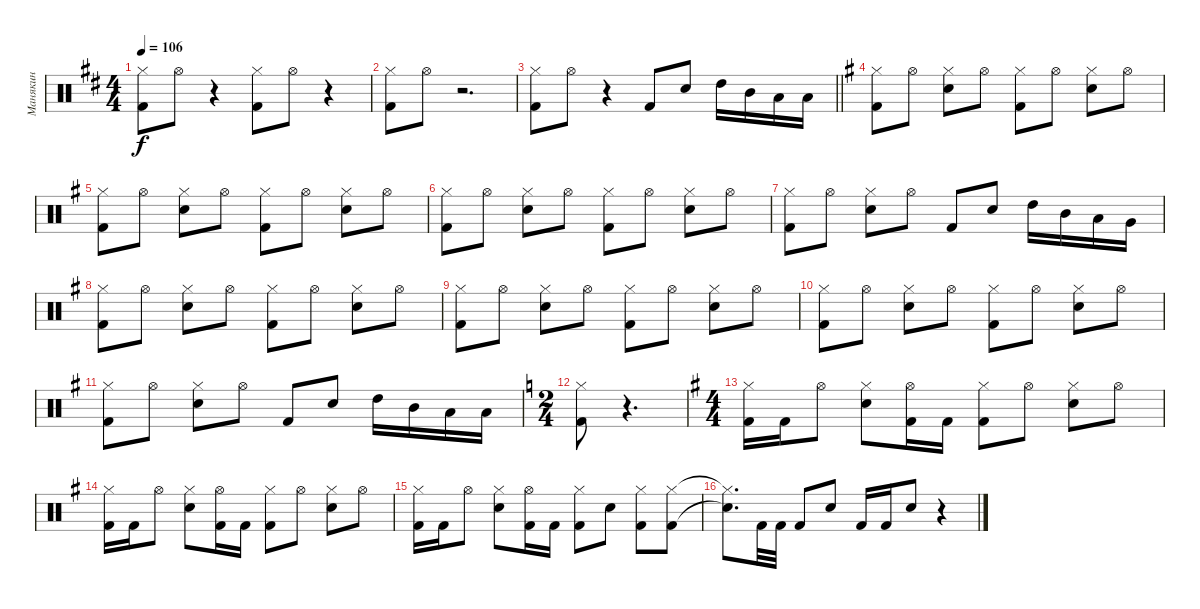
\track ("Манякин" "Манякин") {instrument percussion}
\staff {score}
\articulation defaults
\ts (4 4)
\tempo 106
\clef neutral
\ks d
("Hi-Hat (closed)" "Kick (hit) 2").8{dy f} "Hi-Hat (open)".8 r.4 ("Hi-Hat (closed)" "Kick (hit) 2").8 "Hi-Hat (open)".8 r.4 |
("Hi-Hat (closed)" "Kick (hit) 2").8 "Hi-Hat (open)".8 r.2{d} |
\barLineRight lightlight
("Hi-Hat (closed)" "Kick (hit) 2").8 "Hi-Hat (open)".8 r.4 "Kick (hit) 2".8 "Electric Snare (hit)".8 "High Tom (hit)".16 "Mid Tom (hit)".16 "Low Tom (hit)".16 "Low Tom (hit)".16 |
\ks g
("Hi-Hat (closed)" "Kick (hit) 2").8 "Hi-Hat (open)".8 ("Hi-Hat (closed)" "Electric Snare (hit)").8 "Hi-Hat (open)".8 ("Hi-Hat (closed)" "Kick (hit) 2").8 "Hi-Hat (open)".8 ("Hi-Hat (closed)" "Electric Snare (hit)").8 "Hi-Hat (open)".8 |
("Hi-Hat (closed)" "Kick (hit) 2").8 "Hi-Hat (open)".8 ("Hi-Hat (closed)" "Electric Snare (hit)").8 "Hi-Hat (open)".8 ("Hi-Hat (closed)" "Kick (hit) 2").8 "Hi-Hat (open)".8 ("Hi-Hat (closed)" "Electric Snare (hit)").8 "Hi-Hat (open)".8 |
("Hi-Hat (closed)" "Kick (hit) 2").8 "Hi-Hat (open)".8 ("Hi-Hat (closed)" "Electric Snare (hit)").8 "Hi-Hat (open)".8 ("Hi-Hat (closed)" "Kick (hit) 2").8 "Hi-Hat (open)".8 ("Hi-Hat (closed)" "Electric Snare (hit)").8 "Hi-Hat (open)".8 |
("Hi-Hat (closed)" "Kick (hit) 2").8 "Hi-Hat (open)".8 ("Hi-Hat (closed)" "Electric Snare (hit)").8 "Hi-Hat (open)".8 "Kick (hit) 2".8 "Electric Snare (hit)".8 "High Tom (hit)".16 "Mid Tom (hit)".16 "Low Tom (hit)".16 "Very Low Tom (hit)".16 |
("Hi-Hat (closed)" "Kick (hit) 2").8 "Hi-Hat (open)".8 ("Hi-Hat (closed)" "Electric Snare (hit)").8 "Hi-Hat (open)".8 ("Hi-Hat (closed)" "Kick (hit) 2").8 "Hi-Hat (open)".8 ("Hi-Hat (closed)" "Electric Snare (hit)").8 "Hi-Hat (open)".8 |
("Hi-Hat (closed)" "Kick (hit) 2").8 "Hi-Hat (open)".8 ("Hi-Hat (closed)" "Electric Snare (hit)").8 "Hi-Hat (open)".8 ("Hi-Hat (closed)" "Kick (hit) 2").8 "Hi-Hat (open)".8 ("Hi-Hat (closed)" "Electric Snare (hit)").8 "Hi-Hat (open)".8 |
("Hi-Hat (closed)" "Kick (hit) 2").8 "Hi-Hat (open)".8 ("Hi-Hat (closed)" "Electric Snare (hit)").8 "Hi-Hat (open)".8 ("Hi-Hat (closed)" "Kick (hit) 2").8 "Hi-Hat (open)".8 ("Hi-Hat (closed)" "Electric Snare (hit)").8 "Hi-Hat (open)".8 |
("Hi-Hat (closed)" "Kick (hit) 2").8 "Hi-Hat (open)".8 ("Hi-Hat (closed)" "Electric Snare (hit)").8 "Hi-Hat (open)".8 "Kick (hit) 2".8 "Electric Snare (hit)".8 "High Tom (hit)".16 "Mid Tom (hit)".16 "Low Tom (hit)".16 "Low Tom (hit)".16 |
\ts (2 4)
\ks c
("Hi-Hat (closed)" "Kick (hit) 2").8 r.4{d} |
\ts (4 4)
\ks g
("Hi-Hat (closed)" "Kick (hit) 2").16 "Kick (hit) 2".16 "Hi-Hat (open)".8 ("Hi-Hat (closed)" "Electric Snare (hit)").8 ("Kick (hit) 2" "Hi-Hat (open)").16 "Kick (hit) 2".16 ("Hi-Hat (closed)" "Kick (hit) 2").8 "Hi-Hat (open)".8 ("Hi-Hat (closed)" "Electric Snare (hit)").8 "Hi-Hat (open)".8 |
("Hi-Hat (closed)" "Kick (hit) 2").16 "Kick (hit) 2".16 "Hi-Hat (open)".8 ("Hi-Hat (closed)" "Electric Snare (hit)").8 ("Kick (hit) 2" "Hi-Hat (open)").16 "Kick (hit) 2".16 ("Hi-Hat (closed)" "Kick (hit) 2").8 "Hi-Hat (open)".8 ("Hi-Hat (closed)" "Electric Snare (hit)").8 "Hi-Hat (open)".8 |
("Hi-Hat (closed)" "Kick (hit) 2").16 "Kick (hit) 2".16 "Hi-Hat (open)".8 ("Hi-Hat (closed)" "Electric Snare (hit)").8 ("Kick (hit) 2" "Hi-Hat (open)").16 "Kick (hit) 2".16 ("Hi-Hat (closed)" "Kick (hit) 2").8 "Electric Snare (hit)".8 ("Hi-Hat (closed)" "Kick (hit) 2").8 ("Hi-Hat (closed)" "Kick (hit) 2").8 |
("Hi-Hat (closed)"{t} "Electric Snare (hit)"{t}).8{d} "Kick (hit) 2".32 "Kick (hit) 2".32 "Kick (hit) 2".8 "Electric Snare (hit)".8 "Kick (hit) 2".16 "Kick (hit) 2".16 "Electric Snare (hit)".8 r.4
